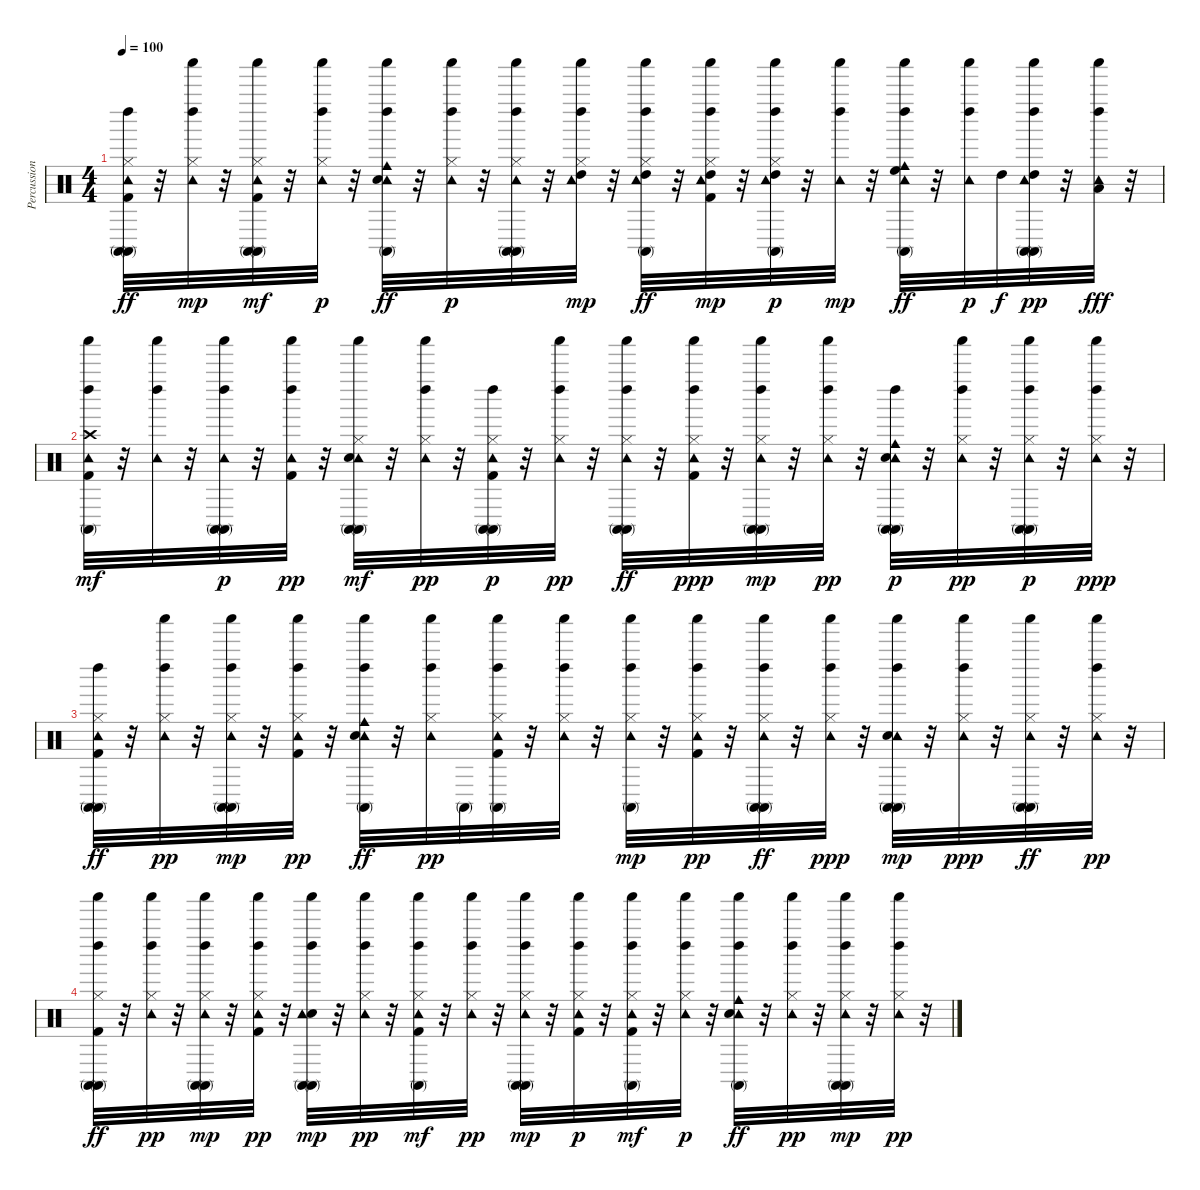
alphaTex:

\track ("Percussions" "Percussion") {instrument percussion}
\staff {score}
\articulation defaults
\ts (4 4)
\tempo 100
\clef neutral
\ks c
("Conga high (mute)" "Tambourine (hit)" "Conga high (mute)" "Kick (hit) 2" "Hi-Hat (closed)" "Left Maraca (hit)").32{dy ff} r.32 ("Hi-Hat (closed)" "Shaker (hit)" "Tambourine (hit)" "Left Maraca (hit)").32{dy mp} r.32 ("Conga high (mute)" "Conga high (mute)" "Kick (hit) 2" "Hi-Hat (closed)" "Tambourine (hit)" "Shaker (hit)").32{dy mf} r.32 ("Hi-Hat (closed)" "Tambourine (hit)" "Left Maraca (hit)" "Shaker (hit)").32{dy p} r.32 ("Tambourine (hit)" "Conga high (mute)" "Electric Snare (hit)" "Left Maraca (hit)" "Shaker (hit)" "Cowbell medium (hit)").32{dy ff} r.32 ("Hi-Hat (closed)" "Tambourine (hit)" "Left Maraca (hit)" "Shaker (hit)").32{dy p} r.32 ("Conga high (mute)" "Tambourine (hit)" "Left Maraca (hit)" "Hi-Hat (closed)" "Shaker (hit)" "Conga high (mute)").32 r.32 ("Hi-Hat (closed)" "Tambourine (hit)" "Left Maraca (hit)" "High Tom (hit)" "Shaker (hit)").32{dy mp} r.32 ("Tambourine (hit)" "Hi-Hat (closed)" "High Tom (hit)" "Conga high (mute)" "Shaker (hit)" "Left Maraca (hit)").32{dy ff} r.32 ("Kick (hit) 2" "Hi-Hat (closed)" "High Tom (hit)" "Tambourine (hit)" "Shaker (hit)" "Left Maraca (hit)").32{dy mp} r.32 ("Hi-Hat (closed)" "High Tom (hit)" "Tambourine (hit)" "Conga high (mute)" "Shaker (hit)" "Left Maraca (hit)").32{dy p} r.32 ("Tambourine (hit)" "Shaker (hit)" "Left Maraca (hit)").32{dy mp} r.32 ("Conga high (mute)" "High Floor Tom (hit)" "Cowbell medium (hit)" "Tambourine (hit)" "Shaker (hit)" "Left Maraca (hit)").32{dy ff} r.32 ("Tambourine (hit)" "Left Maraca (hit)" "Shaker (hit)").32{dy p} "High Tom (hit)".32{dy f} ("Conga high (mute)" "High Tom (hit)" "Tambourine (hit)" "Conga high (mute)" "Shaker (hit)" "Left Maraca (hit)").32{dy pp} r.32 ("Shaker (hit)" "Tambourine (hit)" "Left Maraca (hit)" "Low Tom (hit)").32{dy fff} r.32 |
("Tambourine (hit)" "Conga high (mute)" "Crash high (hit)" "Kick (hit) 2" "Shaker (hit)" "Left Maraca (hit)").32{dy mf} r.32 ("Tambourine (hit)" "Shaker (hit)" "Left Maraca (hit)").32 r.32 ("Conga high (mute)" "Tambourine (hit)" "Conga high (mute)" "Shaker (hit)" "Left Maraca (hit)").32{dy p} r.32 ("Kick (hit) 2" "Tambourine (hit)" "Shaker (hit)" "Left Maraca (hit)").32{dy pp} r.32 ("Conga high (mute)" "Tambourine (hit)" "Electric Snare (hit)" "Conga high (mute)" "Hi-Hat (closed)" "Shaker (hit)").32{dy mf} r.32 ("Hi-Hat (closed)" "Left Maraca (hit)" "Tambourine (hit)" "Shaker (hit)").32{dy pp} r.32 ("Conga high (mute)" "Tambourine (hit)" "Conga high (mute)" "Kick (hit) 2" "Hi-Hat (closed)" "Left Maraca (hit)").32{dy p} r.32 ("Hi-Hat (closed)" "Tambourine (hit)" "Left Maraca (hit)" "Shaker (hit)").32{dy pp} r.32 ("Conga high (mute)" "Conga high (mute)" "Tambourine (hit)" "Hi-Hat (closed)" "Left Maraca (hit)" "Shaker (hit)").32{dy ff} r.32 ("Tambourine (hit)" "Kick (hit) 2" "Hi-Hat (closed)" "Left Maraca (hit)" "Shaker (hit)").32{dy ppp} r.32 ("Conga high (mute)" "Hi-Hat (closed)" "Tambourine (hit)" "Conga high (mute)" "Left Maraca (hit)" "Shaker (hit)").32{dy mp} r.32 ("Hi-Hat (closed)" "Tambourine (hit)" "Left Maraca (hit)" "Shaker (hit)").32{dy pp} r.32 ("Conga high (mute)" "Tambourine (hit)" "Cowbell medium (hit)" "Electric Snare (hit)" "Conga high (mute)" "Left Maraca (hit)").32{dy p} r.32 ("Tambourine (hit)" "Hi-Hat (closed)" "Left Maraca (hit)" "Shaker (hit)").32{dy pp} r.32 ("Conga high (mute)" "Conga high (mute)" "Tambourine (hit)" "Hi-Hat (closed)" "Left Maraca (hit)" "Shaker (hit)").32{dy p} r.32 ("Hi-Hat (closed)" "Tambourine (hit)" "Left Maraca (hit)" "Shaker (hit)").32{dy ppp} r.32 |
("Conga high (mute)" "Conga high (mute)" "Tambourine (hit)" "Kick (hit) 2" "Hi-Hat (closed)" "Left Maraca (hit)").32{dy ff} r.32 ("Tambourine (hit)" "Hi-Hat (closed)" "Left Maraca (hit)" "Shaker (hit)").32{dy pp} r.32 ("Conga high (mute)" "Conga high (mute)" "Hi-Hat (closed)" "Tambourine (hit)" "Left Maraca (hit)" "Shaker (hit)").32{dy mp} r.32 ("Kick (hit) 2" "Hi-Hat (closed)" "Tambourine (hit)" "Left Maraca (hit)" "Shaker (hit)").32{dy pp} r.32 ("Conga high (mute)" "Tambourine (hit)" "Electric Snare (hit)" "Shaker (hit)" "Left Maraca (hit)" "Cowbell medium (hit)").32{dy ff} r.32 ("Hi-Hat (closed)" "Tambourine (hit)" "Left Maraca (hit)" "Shaker (hit)").32{dy pp} "Conga high (mute)".32 ("Conga high (mute)" "Tambourine (hit)" "Kick (hit) 2" "Hi-Hat (closed)" "Shaker (hit)" "Left Maraca (hit)").32 r.32 ("Tambourine (hit)" "Hi-Hat (closed)" "Left Maraca (hit)" "Shaker (hit)").32 r.32 ("Conga high (mute)" "Tambourine (hit)" "Left Maraca (hit)" "Hi-Hat (closed)" "Shaker (hit)").32{dy mp} r.32 ("Hi-Hat (closed)" "Kick (hit) 2" "Tambourine (hit)" "Left Maraca (hit)" "Shaker (hit)").32{dy pp} r.32 ("Conga high (mute)" "Conga high (mute)" "Hi-Hat (closed)" "Tambourine (hit)" "Left Maraca (hit)" "Shaker (hit)").32{dy ff} r.32 ("Hi-Hat (closed)" "Left Maraca (hit)" "Tambourine (hit)" "Shaker (hit)").32{dy ppp} r.32 ("Conga high (mute)" "Tambourine (hit)" "Left Maraca (hit)" "Electric Snare (hit)" "Conga high (mute)" "Shaker (hit)").32{dy mp} r.32 ("Hi-Hat (closed)" "Tambourine (hit)" "Left Maraca (hit)" "Shaker (hit)").32{dy ppp} r.32 ("Conga high (mute)" "Tambourine (hit)" "Hi-Hat (closed)" "Conga high (mute)" "Shaker (hit)").32{dy ff} r.32 ("Left Maraca (hit)" "Hi-Hat (closed)" "Tambourine (hit)" "Shaker (hit)").32{dy pp} r.32 |
("Conga high (mute)" "Left Maraca (hit)" "Kick (hit) 2" "Hi-Hat (closed)" "Conga high (mute)" "Shaker (hit)").32{dy ff} r.32 ("Left Maraca (hit)" "Hi-Hat (closed)" "Shaker (hit)" "Tambourine (hit)").32{dy pp} r.32 ("Conga high (mute)" "Left Maraca (hit)" "Hi-Hat (closed)" "Shaker (hit)" "Tambourine (hit)" "Conga high (mute)").32{dy mp} r.32 ("Kick (hit) 2" "Hi-Hat (closed)" "Left Maraca (hit)" "Shaker (hit)" "Tambourine (hit)").32{dy pp} r.32 ("Conga high (mute)" "Left Maraca (hit)" "Shaker (hit)" "Electric Snare (hit)" "Tambourine (hit)" "Conga high (mute)").32{dy mp} r.32 ("Left Maraca (hit)" "Hi-Hat (closed)" "Shaker (hit)" "Tambourine (hit)").32{dy pp} r.32 ("Left Maraca (hit)" "Conga high (mute)" "Shaker (hit)" "Tambourine (hit)" "Kick (hit) 2" "Hi-Hat (closed)").32{dy mf} r.32 ("Left Maraca (hit)" "Tambourine (hit)" "Hi-Hat (closed)" "Shaker (hit)").32{dy pp} r.32 ("Conga high (mute)" "Left Maraca (hit)" "Shaker (hit)" "Tambourine (hit)" "Conga high (mute)" "Hi-Hat (closed)").32{dy mp} r.32 ("Left Maraca (hit)" "Tambourine (hit)" "Kick (hit) 2" "Hi-Hat (closed)" "Shaker (hit)").32{dy p} r.32 ("Conga high (mute)" "Left Maraca (hit)" "Tambourine (hit)" "Shaker (hit)" "Kick (hit) 2" "Hi-Hat (closed)").32{dy mf} r.32 ("Tambourine (hit)" "Left Maraca (hit)" "Hi-Hat (closed)" "Shaker (hit)").32{dy p} r.32 ("Conga high (mute)" "Tambourine (hit)" "Left Maraca (hit)" "Electric Snare (hit)" "Cowbell medium (hit)" "Shaker (hit)").32{dy ff} r.32 ("Tambourine (hit)" "Left Maraca (hit)" "Hi-Hat (closed)" "Shaker (hit)").32{dy pp} r.32 ("Conga high (mute)" "Tambourine (hit)" "Conga high (mute)" "Left Maraca (hit)" "Hi-Hat (closed)" "Shaker (hit)").32{dy mp} r.32 ("Tambourine (hit)" "Hi-Hat (closed)" "Left Maraca (hit)" "Shaker (hit)").32{dy pp} r.32
